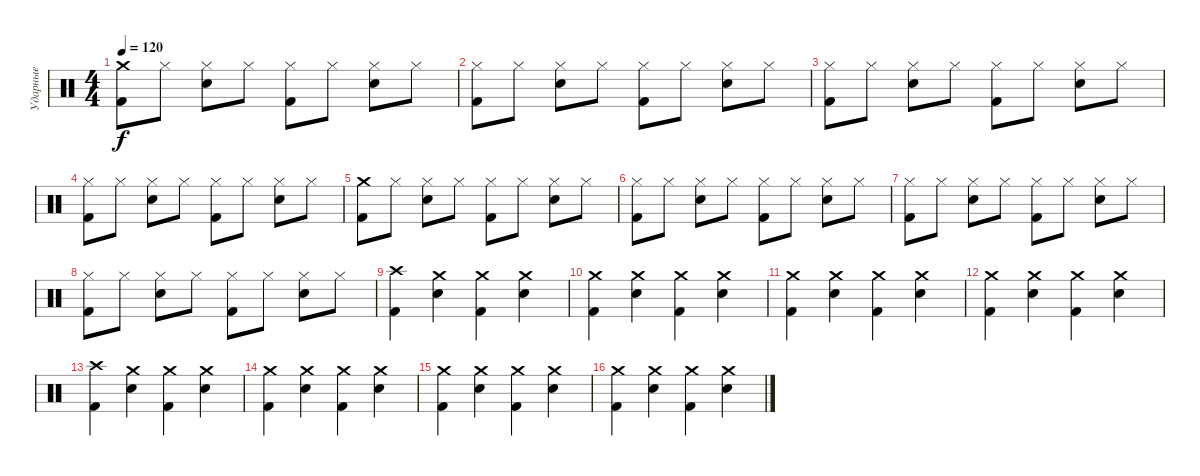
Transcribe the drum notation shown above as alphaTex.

\track ("Ударные" "Ударные") {instrument percussion}
\staff {score}
\articulation defaults
\ts (4 4)
\tempo 120
\clef neutral
\ks c
("Crash medium (hit)" "Kick (hit) 2").8{dy f} "Hi-Hat (closed)".8 ("Hi-Hat (closed)" "Electric Snare (hit)").8 "Hi-Hat (closed)".8 ("Hi-Hat (closed)" "Kick (hit) 2").8 "Hi-Hat (closed)".8 ("Hi-Hat (closed)" "Electric Snare (hit)").8 "Hi-Hat (closed)".8 |
("Hi-Hat (closed)" "Kick (hit) 2").8 "Hi-Hat (closed)".8 ("Hi-Hat (closed)" "Electric Snare (hit)").8 "Hi-Hat (closed)".8 ("Hi-Hat (closed)" "Kick (hit) 2").8 "Hi-Hat (closed)".8 ("Hi-Hat (closed)" "Electric Snare (hit)").8 "Hi-Hat (closed)".8 |
("Hi-Hat (closed)" "Kick (hit) 2").8 "Hi-Hat (closed)".8 ("Hi-Hat (closed)" "Electric Snare (hit)").8 "Hi-Hat (closed)".8 ("Hi-Hat (closed)" "Kick (hit) 2").8 "Hi-Hat (closed)".8 ("Hi-Hat (closed)" "Electric Snare (hit)").8 "Hi-Hat (closed)".8 |
("Hi-Hat (closed)" "Kick (hit) 2").8 "Hi-Hat (closed)".8 ("Hi-Hat (closed)" "Electric Snare (hit)").8 "Hi-Hat (closed)".8 ("Hi-Hat (closed)" "Kick (hit) 2").8 "Hi-Hat (closed)".8 ("Hi-Hat (closed)" "Electric Snare (hit)").8 "Hi-Hat (closed)".8 |
("Crash medium (hit)" "Kick (hit) 2").8 "Hi-Hat (closed)".8 ("Hi-Hat (closed)" "Electric Snare (hit)").8 "Hi-Hat (closed)".8 ("Hi-Hat (closed)" "Kick (hit) 2").8 "Hi-Hat (closed)".8 ("Hi-Hat (closed)" "Electric Snare (hit)").8 "Hi-Hat (closed)".8 |
("Hi-Hat (closed)" "Kick (hit) 2").8 "Hi-Hat (closed)".8 ("Hi-Hat (closed)" "Electric Snare (hit)").8 "Hi-Hat (closed)".8 ("Hi-Hat (closed)" "Kick (hit) 2").8 "Hi-Hat (closed)".8 ("Hi-Hat (closed)" "Electric Snare (hit)").8 "Hi-Hat (closed)".8 |
("Hi-Hat (closed)" "Kick (hit) 2").8 "Hi-Hat (closed)".8 ("Hi-Hat (closed)" "Electric Snare (hit)").8 "Hi-Hat (closed)".8 ("Hi-Hat (closed)" "Kick (hit) 2").8 "Hi-Hat (closed)".8 ("Hi-Hat (closed)" "Electric Snare (hit)").8 "Hi-Hat (closed)".8 |
("Hi-Hat (closed)" "Kick (hit) 2").8 "Hi-Hat (closed)".8 ("Hi-Hat (closed)" "Electric Snare (hit)").8 "Hi-Hat (closed)".8 ("Hi-Hat (closed)" "Kick (hit) 2").8 "Hi-Hat (closed)".8 ("Hi-Hat (closed)" "Electric Snare (hit)").8 "Hi-Hat (closed)".8 |
("Crash high (hit)" "Kick (hit) 2").4 ("Crash medium (hit)" "Electric Snare (hit)").4 ("Crash medium (hit)" "Kick (hit) 2").4 ("Crash medium (hit)" "Electric Snare (hit)").4 |
("Crash medium (hit)" "Kick (hit) 2").4 ("Crash medium (hit)" "Electric Snare (hit)").4 ("Crash medium (hit)" "Kick (hit) 2").4 ("Crash medium (hit)" "Electric Snare (hit)").4 |
("Crash medium (hit)" "Kick (hit) 2").4 ("Crash medium (hit)" "Electric Snare (hit)").4 ("Crash medium (hit)" "Kick (hit) 2").4 ("Crash medium (hit)" "Electric Snare (hit)").4 |
("Crash medium (hit)" "Kick (hit) 2").4 ("Crash medium (hit)" "Electric Snare (hit)").4 ("Crash medium (hit)" "Kick (hit) 2").4 ("Crash medium (hit)" "Electric Snare (hit)").4 |
("Crash high (hit)" "Kick (hit) 2").4 ("Crash medium (hit)" "Electric Snare (hit)").4 ("Crash medium (hit)" "Kick (hit) 2").4 ("Crash medium (hit)" "Electric Snare (hit)").4 |
("Crash medium (hit)" "Kick (hit) 2").4 ("Crash medium (hit)" "Electric Snare (hit)").4 ("Crash medium (hit)" "Kick (hit) 2").4 ("Crash medium (hit)" "Electric Snare (hit)").4 |
("Crash medium (hit)" "Kick (hit) 2").4 ("Crash medium (hit)" "Electric Snare (hit)").4 ("Crash medium (hit)" "Kick (hit) 2").4 ("Crash medium (hit)" "Electric Snare (hit)").4 |
("Crash medium (hit)" "Kick (hit) 2").4 ("Crash medium (hit)" "Electric Snare (hit)").4 ("Crash medium (hit)" "Kick (hit) 2").4 ("Crash medium (hit)" "Electric Snare (hit)").4
